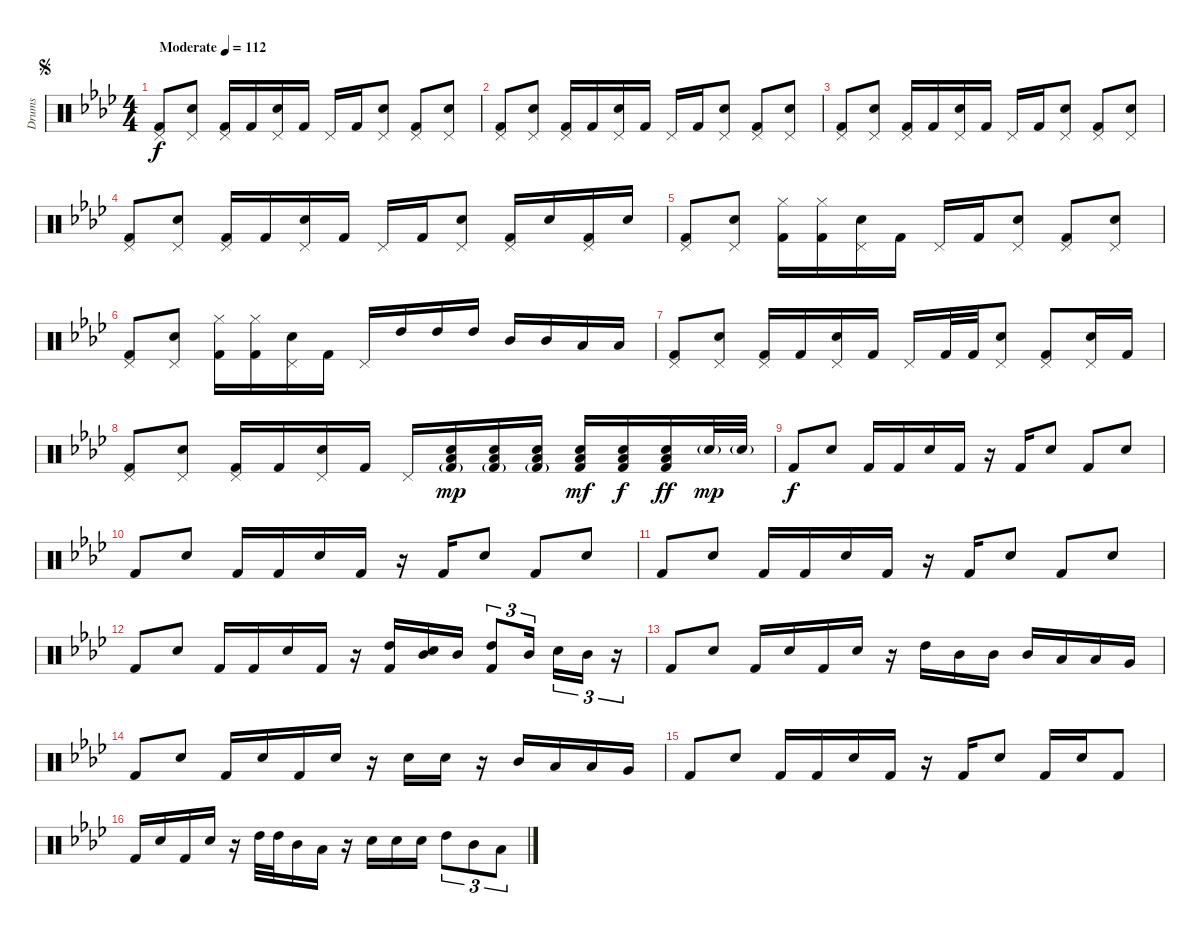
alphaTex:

\track ("Drums" "Drums") {instrument percussion}
\staff {score}
\articulation defaults
\ts (4 4)
\jump segno
\tempo (112 "Moderate")
\clef neutral
\ks ab
("Pedal Hi-Hat (hit)" "Kick (hit) 2").8{dy f} ("Electric Snare (hit)" "Pedal Hi-Hat (hit)").8 ("Pedal Hi-Hat (hit)" "Kick (hit) 2").16 "Kick (hit) 2".16 ("Electric Snare (hit)" "Pedal Hi-Hat (hit)").16 "Kick (hit) 2".16 "Pedal Hi-Hat (hit)".16 "Kick (hit) 2".16 ("Electric Snare (hit)" "Pedal Hi-Hat (hit)").8 ("Pedal Hi-Hat (hit)" "Kick (hit) 2").8 ("Electric Snare (hit)" "Pedal Hi-Hat (hit)").8 |
("Pedal Hi-Hat (hit)" "Kick (hit) 2").8 ("Electric Snare (hit)" "Pedal Hi-Hat (hit)").8 ("Pedal Hi-Hat (hit)" "Kick (hit) 2").16 "Kick (hit) 2".16 ("Electric Snare (hit)" "Pedal Hi-Hat (hit)").16 "Kick (hit) 2".16 "Pedal Hi-Hat (hit)".16 "Kick (hit) 2".16 ("Electric Snare (hit)" "Pedal Hi-Hat (hit)").8 ("Pedal Hi-Hat (hit)" "Kick (hit) 2").8 ("Electric Snare (hit)" "Pedal Hi-Hat (hit)").8 |
("Pedal Hi-Hat (hit)" "Kick (hit) 2").8 ("Electric Snare (hit)" "Pedal Hi-Hat (hit)").8 ("Pedal Hi-Hat (hit)" "Kick (hit) 2").16 "Kick (hit) 2".16 ("Electric Snare (hit)" "Pedal Hi-Hat (hit)").16 "Kick (hit) 2".16 "Pedal Hi-Hat (hit)".16 "Kick (hit) 2".16 ("Electric Snare (hit)" "Pedal Hi-Hat (hit)").8 ("Pedal Hi-Hat (hit)" "Kick (hit) 2").8 ("Electric Snare (hit)" "Pedal Hi-Hat (hit)").8 |
("Pedal Hi-Hat (hit)" "Kick (hit) 2").8 ("Electric Snare (hit)" "Pedal Hi-Hat (hit)").8 ("Pedal Hi-Hat (hit)" "Kick (hit) 2").16 "Kick (hit) 2".16 ("Electric Snare (hit)" "Pedal Hi-Hat (hit)").16 "Kick (hit) 2".16 "Pedal Hi-Hat (hit)".16 "Kick (hit) 2".16 ("Electric Snare (hit)" "Pedal Hi-Hat (hit)").8 ("Pedal Hi-Hat (hit)" "Kick (hit) 2").16 "Electric Snare (hit)".16 ("Pedal Hi-Hat (hit)" "Kick (hit) 2").16 "Electric Snare (hit)".16 |
("Pedal Hi-Hat (hit)" "Kick (hit) 2").8 ("Electric Snare (hit)" "Pedal Hi-Hat (hit)").8 ("Hi-Hat (closed)" "Kick (hit) 2").16 ("Hi-Hat (closed)" "Kick (hit) 2").16 ("Electric Snare (hit)" "Pedal Hi-Hat (hit)").16 "Kick (hit) 2".16 "Pedal Hi-Hat (hit)".16 "Kick (hit) 2".16 ("Electric Snare (hit)" "Pedal Hi-Hat (hit)").8 ("Pedal Hi-Hat (hit)" "Kick (hit) 2").8 ("Electric Snare (hit)" "Pedal Hi-Hat (hit)").8 |
("Pedal Hi-Hat (hit)" "Kick (hit) 2").8 ("Electric Snare (hit)" "Pedal Hi-Hat (hit)").8 ("Hi-Hat (closed)" "Kick (hit) 2").16 ("Hi-Hat (closed)" "Kick (hit) 2").16 ("Electric Snare (hit)" "Pedal Hi-Hat (hit)").16 "Kick (hit) 2".16 "Pedal Hi-Hat (hit)".16 "High Tom (hit)".16 "High Tom (hit)".16 "High Tom (hit)".16 "Mid Tom (hit)".16 "Mid Tom (hit)".16 "Low Tom (hit)".16 "Low Tom (hit)".16 |
("Pedal Hi-Hat (hit)" "Kick (hit) 2").8 ("Electric Snare (hit)" "Pedal Hi-Hat (hit)").8 ("Pedal Hi-Hat (hit)" "Kick (hit) 2").16 "Kick (hit) 2".16 ("Electric Snare (hit)" "Pedal Hi-Hat (hit)").16 "Kick (hit) 2".16 "Pedal Hi-Hat (hit)".16 "Kick (hit) 2".32 "Kick (hit) 2".32 ("Electric Snare (hit)" "Pedal Hi-Hat (hit)").8 ("Pedal Hi-Hat (hit)" "Kick (hit) 2").8 ("Electric Snare (hit)" "Pedal Hi-Hat (hit)").16 "Kick (hit) 2".16 |
("Pedal Hi-Hat (hit)" "Kick (hit) 2").8 ("Electric Snare (hit)" "Pedal Hi-Hat (hit)").8 ("Pedal Hi-Hat (hit)" "Kick (hit) 2").16 "Kick (hit) 2".16 ("Electric Snare (hit)" "Pedal Hi-Hat (hit)").16 "Kick (hit) 2".16 "Pedal Hi-Hat (hit)".16 ("Electric Snare (hit)" "Low Tom (hit)" "Kick (hit) 2"{g}).16{dy mp} ("Electric Snare (hit)" "Low Tom (hit)" "Kick (hit) 2"{g}).16 ("Electric Snare (hit)" "Low Tom (hit)" "Kick (hit) 2"{g}).16 ("Electric Snare (hit)" "Low Tom (hit)" "Kick (hit) 2").16{dy mf} ("Electric Snare (hit)" "Low Tom (hit)" "Kick (hit) 2").16{dy f} ("Electric Snare (hit)" "Low Tom (hit)" "Kick (hit) 2").16{dy ff} "Electric Snare (hit)"{g}.32{dy mp} "Electric Snare (hit)"{g}.32 |
"Kick (hit) 2".8{dy f} "Electric Snare (hit)".8 "Kick (hit) 2".16 "Kick (hit) 2".16 "Electric Snare (hit)".16 "Kick (hit) 2".16 r.16 "Kick (hit) 2".16 "Electric Snare (hit)".8 "Kick (hit) 2".8 "Electric Snare (hit)".8 |
"Kick (hit) 2".8 "Electric Snare (hit)".8 "Kick (hit) 2".16 "Kick (hit) 2".16 "Electric Snare (hit)".16 "Kick (hit) 2".16 r.16 "Kick (hit) 2".16 "Electric Snare (hit)".8 "Kick (hit) 2".8 "Electric Snare (hit)".8 |
"Kick (hit) 2".8 "Electric Snare (hit)".8 "Kick (hit) 2".16 "Kick (hit) 2".16 "Electric Snare (hit)".16 "Kick (hit) 2".16 r.16 "Kick (hit) 2".16 "Electric Snare (hit)".8 "Kick (hit) 2".8 "Electric Snare (hit)".8 |
"Kick (hit) 2".8 "Electric Snare (hit)".8 "Kick (hit) 2".16 "Kick (hit) 2".16 "Electric Snare (hit)".16 "Kick (hit) 2".16 r.16 ("High Tom (hit)" "Kick (hit) 2").16 ("Mid Tom (hit)" "Electric Snare (hit)").16 "Mid Tom (hit)".16 ("High Tom (hit)" "Kick (hit) 2").8{tu (3 2)} "Mid Tom (hit)".16{tu (3 2) beam splitsecondary} "Electric Snare (hit)".16{tu (3 2)} "Mid Tom (hit)".16{tu (3 2)} r.16{tu (3 2)} |
"Kick (hit) 2".8 "Electric Snare (hit)".8 "Kick (hit) 2".16 "Electric Snare (hit)".16 "Kick (hit) 2".16 "Electric Snare (hit)".16 r.16 "High Tom (hit)".16 "Mid Tom (hit)".16 "Mid Tom (hit)".16 "Mid Tom (hit)".16 "Low Tom (hit)".16 "Low Tom (hit)".16 "Very Low Tom (hit)".16 |
"Kick (hit) 2".8 "Electric Snare (hit)".8 "Kick (hit) 2".16 "Electric Snare (hit)".16 "Kick (hit) 2".16 "Electric Snare (hit)".16 r.16 "Electric Snare (hit)".16 "Electric Snare (hit)".16 r.16 "Mid Tom (hit)".16 "Low Tom (hit)".16 "Low Tom (hit)".16 "Very Low Tom (hit)".16 |
"Kick (hit) 2".8 "Electric Snare (hit)".8 "Kick (hit) 2".16 "Kick (hit) 2".16 "Electric Snare (hit)".16 "Kick (hit) 2".16 r.16 "Kick (hit) 2".16 "Electric Snare (hit)".8 "Kick (hit) 2".16 "Electric Snare (hit)".16 "Kick (hit) 2".8 |
"Kick (hit) 2".16 "Electric Snare (hit)".16 "Kick (hit) 2".16 "Electric Snare (hit)".16 r.16 "High Tom (hit)".32 "High Tom (hit)".32 "Mid Tom (hit)".16 "Low Tom (hit)".16 r.16 "Electric Snare (hit)".16 "Electric Snare (hit)".16 "Electric Snare (hit)".16 "High Tom (hit)".8{tu (3 2)} "Mid Tom (hit)".8{tu (3 2)} "Low Tom (hit)".8{tu (3 2)}
